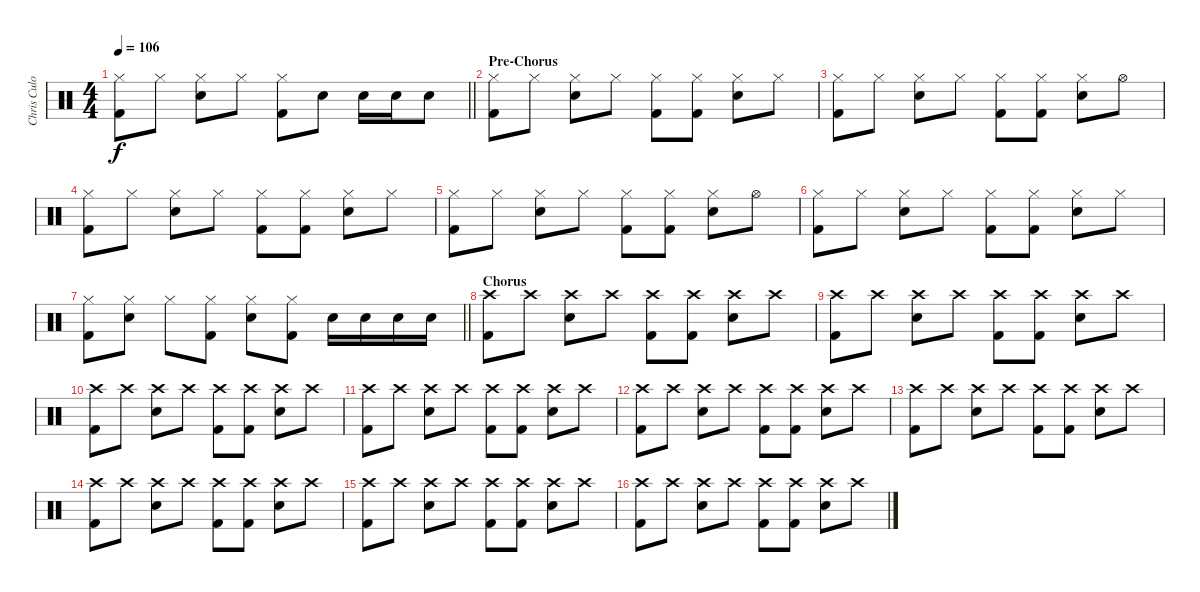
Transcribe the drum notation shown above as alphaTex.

\track ("Chris Culos" "Chris Culo") {instrument percussion}
\staff {score}
\articulation defaults
\ts (4 4)
\tempo 106
\clef neutral
\barLineRight lightlight
\ks c
("Hi-Hat (closed)" "Kick (hit) 2").8{dy f} "Hi-Hat (closed)".8 ("Hi-Hat (closed)" "Snare (hit) 2").8 "Hi-Hat (closed)".8 ("Hi-Hat (closed)" "Kick (hit) 2").8 "Snare (hit) 2".8 "Snare (hit) 2".16 "Snare (hit) 2".16 "Snare (hit) 2".8 |
\section ("" "Pre-Chorus")
("Hi-Hat (closed)" "Kick (hit) 2").8 "Hi-Hat (closed)".8 ("Hi-Hat (closed)" "Snare (hit) 2").8 "Hi-Hat (closed)".8 ("Hi-Hat (closed)" "Kick (hit) 2").8 ("Hi-Hat (closed)" "Kick (hit) 2").8 ("Hi-Hat (closed)" "Snare (hit) 2").8 "Hi-Hat (closed)".8 |
("Hi-Hat (closed)" "Kick (hit) 2").8 "Hi-Hat (closed)".8 ("Hi-Hat (closed)" "Snare (hit) 2").8 "Hi-Hat (closed)".8 ("Hi-Hat (closed)" "Kick (hit) 2").8 ("Hi-Hat (closed)" "Kick (hit) 2").8 ("Hi-Hat (closed)" "Snare (hit) 2").8 "Hi-Hat (open)".8 |
("Hi-Hat (closed)" "Kick (hit) 2").8 "Hi-Hat (closed)".8 ("Hi-Hat (closed)" "Snare (hit) 2").8 "Hi-Hat (closed)".8 ("Hi-Hat (closed)" "Kick (hit) 2").8 ("Hi-Hat (closed)" "Kick (hit) 2").8 ("Hi-Hat (closed)" "Snare (hit) 2").8 "Hi-Hat (closed)".8 |
("Hi-Hat (closed)" "Kick (hit) 2").8 "Hi-Hat (closed)".8 ("Hi-Hat (closed)" "Snare (hit) 2").8 "Hi-Hat (closed)".8 ("Hi-Hat (closed)" "Kick (hit) 2").8 ("Hi-Hat (closed)" "Kick (hit) 2").8 ("Hi-Hat (closed)" "Snare (hit) 2").8 "Hi-Hat (open)".8 |
("Hi-Hat (closed)" "Kick (hit) 2").8 "Hi-Hat (closed)".8 ("Hi-Hat (closed)" "Snare (hit) 2").8 "Hi-Hat (closed)".8 ("Hi-Hat (closed)" "Kick (hit) 2").8 ("Hi-Hat (closed)" "Kick (hit) 2").8 ("Hi-Hat (closed)" "Snare (hit) 2").8 "Hi-Hat (closed)".8 |
\barLineRight lightlight
("Hi-Hat (closed)" "Kick (hit) 2").8 ("Hi-Hat (closed)" "Snare (hit) 2").8 "Hi-Hat (closed)".8 ("Hi-Hat (closed)" "Kick (hit) 2").8 ("Hi-Hat (closed)" "Snare (hit) 2").8 ("Hi-Hat (closed)" "Kick (hit) 2").8 "Snare (hit) 2".16 "Snare (hit) 2".16 "Snare (hit) 2".16 "Snare (hit) 2".16 |
\section ("" "Chorus")
("Crash high (hit)" "Kick (hit) 2").8 "Crash high (hit)".8 ("Crash high (hit)" "Snare (hit) 2").8 "Crash high (hit)".8 ("Crash high (hit)" "Kick (hit) 2").8 ("Crash high (hit)" "Kick (hit) 2").8 ("Crash high (hit)" "Snare (hit) 2").8 "Crash high (hit)".8 |
("Crash high (hit)" "Kick (hit) 2").8 "Crash high (hit)".8 ("Crash high (hit)" "Snare (hit) 2").8 "Crash high (hit)".8 ("Crash high (hit)" "Kick (hit) 2").8 ("Crash high (hit)" "Kick (hit) 2").8 ("Crash high (hit)" "Snare (hit) 2").8 "Crash high (hit)".8 |
("Crash high (hit)" "Kick (hit) 2").8 "Crash high (hit)".8 ("Crash high (hit)" "Snare (hit) 2").8 "Crash high (hit)".8 ("Crash high (hit)" "Kick (hit) 2").8 ("Crash high (hit)" "Kick (hit) 2").8 ("Crash high (hit)" "Snare (hit) 2").8 "Crash high (hit)".8 |
("Crash high (hit)" "Kick (hit) 2").8 "Crash high (hit)".8 ("Crash high (hit)" "Snare (hit) 2").8 "Crash high (hit)".8 ("Crash high (hit)" "Kick (hit) 2").8 ("Crash high (hit)" "Kick (hit) 2").8 ("Crash high (hit)" "Snare (hit) 2").8 "Crash high (hit)".8 |
("Crash high (hit)" "Kick (hit) 2").8 "Crash high (hit)".8 ("Crash high (hit)" "Snare (hit) 2").8 "Crash high (hit)".8 ("Crash high (hit)" "Kick (hit) 2").8 ("Crash high (hit)" "Kick (hit) 2").8 ("Crash high (hit)" "Snare (hit) 2").8 "Crash high (hit)".8 |
("Crash high (hit)" "Kick (hit) 2").8 "Crash high (hit)".8 ("Crash high (hit)" "Snare (hit) 2").8 "Crash high (hit)".8 ("Crash high (hit)" "Kick (hit) 2").8 ("Crash high (hit)" "Kick (hit) 2").8 ("Crash high (hit)" "Snare (hit) 2").8 "Crash high (hit)".8 |
("Crash high (hit)" "Kick (hit) 2").8 "Crash high (hit)".8 ("Crash high (hit)" "Snare (hit) 2").8 "Crash high (hit)".8 ("Crash high (hit)" "Kick (hit) 2").8 ("Crash high (hit)" "Kick (hit) 2").8 ("Crash high (hit)" "Snare (hit) 2").8 "Crash high (hit)".8 |
("Crash high (hit)" "Kick (hit) 2").8 "Crash high (hit)".8 ("Crash high (hit)" "Snare (hit) 2").8 "Crash high (hit)".8 ("Crash high (hit)" "Kick (hit) 2").8 ("Crash high (hit)" "Kick (hit) 2").8 ("Crash high (hit)" "Snare (hit) 2").8 "Crash high (hit)".8 |
("Crash high (hit)" "Kick (hit) 2").8 "Crash high (hit)".8 ("Crash high (hit)" "Snare (hit) 2").8 "Crash high (hit)".8 ("Crash high (hit)" "Kick (hit) 2").8 ("Crash high (hit)" "Kick (hit) 2").8 ("Crash high (hit)" "Snare (hit) 2").8 "Crash high (hit)".8
